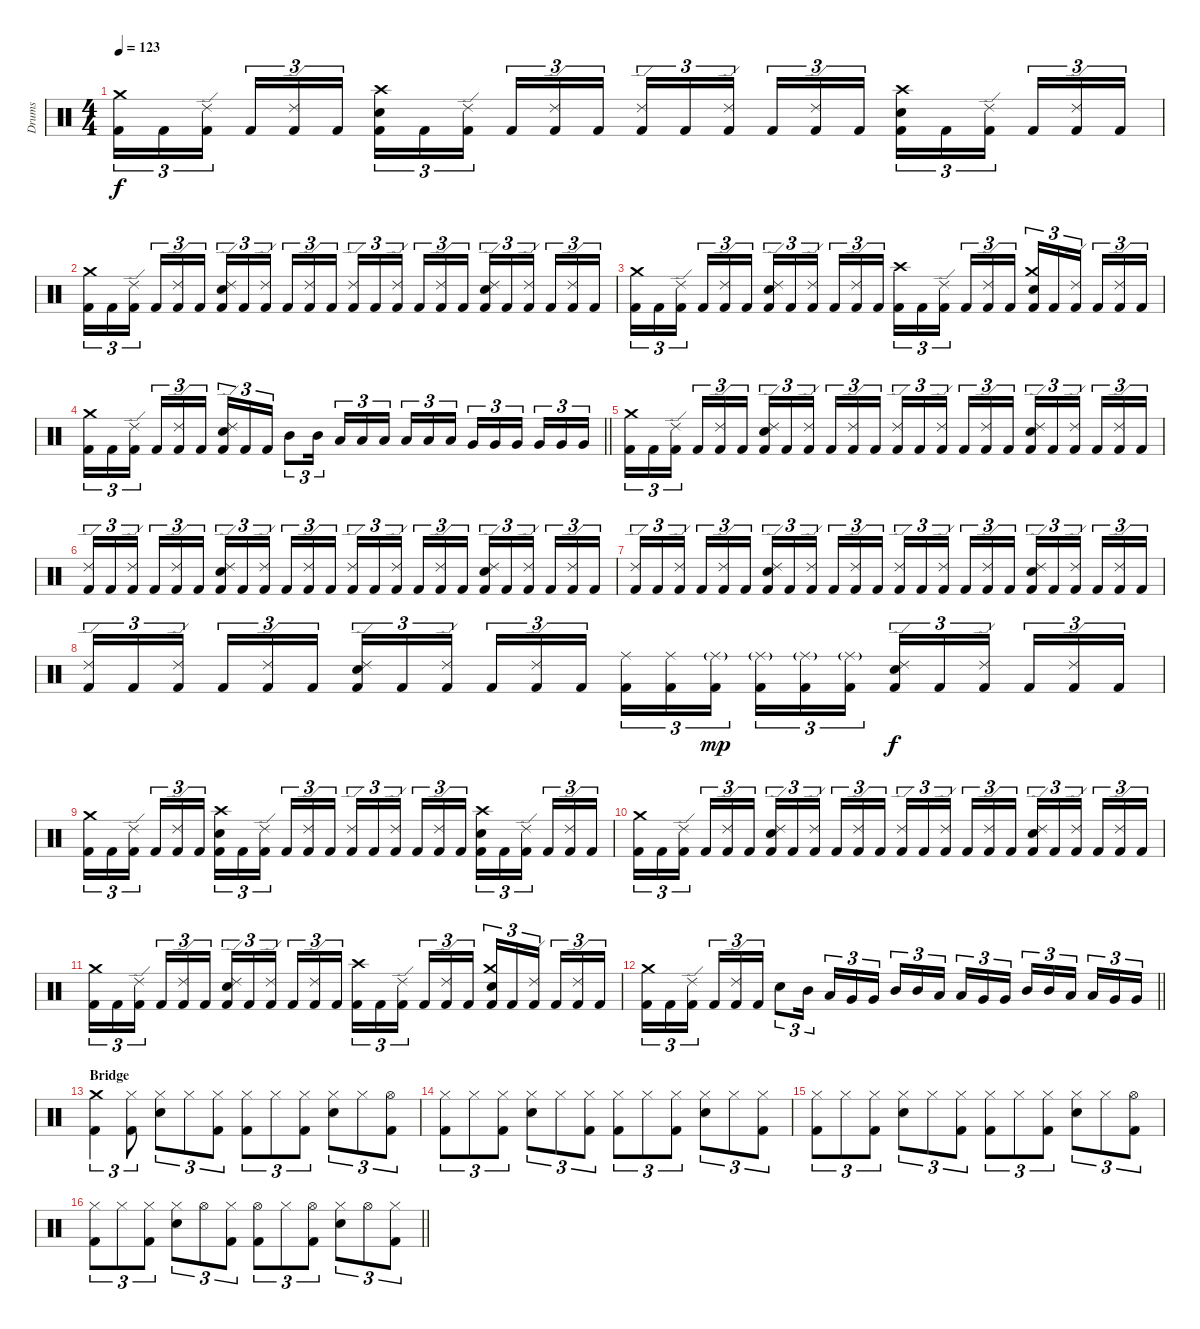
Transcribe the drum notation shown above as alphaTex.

\track ("Drums" "Drums") {instrument percussion}
\staff {score}
\articulation defaults
\ts (4 4)
\tempo 123
\clef neutral
\ks c
("Kick (hit) 2" "Crash medium (hit)").16{tu (3 2) dy f} "Kick (hit) 2".16{tu (3 2)} ("Kick (hit) 2" "Ride (edge) 2").16{tu (3 2) beam splitsecondary} "Kick (hit) 2".16{tu (3 2)} ("Kick (hit) 2" "Ride (edge) 2").16{tu (3 2)} "Kick (hit) 2".16{tu (3 2)} ("Kick (hit) 2" "Snare (hit) 2" "Crash high (hit)").16{tu (3 2)} "Kick (hit) 2".16{tu (3 2)} ("Kick (hit) 2" "Ride (edge) 2").16{tu (3 2) beam splitsecondary} "Kick (hit) 2".16{tu (3 2)} ("Kick (hit) 2" "Ride (edge) 2").16{tu (3 2)} "Kick (hit) 2".16{tu (3 2)} ("Kick (hit) 2" "Ride (edge) 2").16{tu (3 2)} "Kick (hit) 2".16{tu (3 2)} ("Kick (hit) 2" "Ride (edge) 2").16{tu (3 2) beam splitsecondary} "Kick (hit) 2".16{tu (3 2)} ("Kick (hit) 2" "Ride (edge) 2").16{tu (3 2)} "Kick (hit) 2".16{tu (3 2)} ("Kick (hit) 2" "Snare (hit) 2" "Crash high (hit)").16{tu (3 2)} "Kick (hit) 2".16{tu (3 2)} ("Kick (hit) 2" "Ride (edge) 2").16{tu (3 2) beam splitsecondary} "Kick (hit) 2".16{tu (3 2)} ("Kick (hit) 2" "Ride (edge) 2").16{tu (3 2)} "Kick (hit) 2".16{tu (3 2)} |
("Kick (hit) 2" "Crash medium (hit)").16{tu (3 2)} "Kick (hit) 2".16{tu (3 2)} ("Kick (hit) 2" "Ride (edge) 2").16{tu (3 2) beam splitsecondary} "Kick (hit) 2".16{tu (3 2)} ("Kick (hit) 2" "Ride (edge) 2").16{tu (3 2)} "Kick (hit) 2".16{tu (3 2)} ("Kick (hit) 2" "Snare (hit) 2" "Ride (edge) 2").16{tu (3 2)} "Kick (hit) 2".16{tu (3 2)} ("Kick (hit) 2" "Ride (edge) 2").16{tu (3 2) beam splitsecondary} "Kick (hit) 2".16{tu (3 2)} ("Kick (hit) 2" "Ride (edge) 2").16{tu (3 2)} "Kick (hit) 2".16{tu (3 2)} ("Kick (hit) 2" "Ride (edge) 2").16{tu (3 2)} "Kick (hit) 2".16{tu (3 2)} ("Kick (hit) 2" "Ride (edge) 2").16{tu (3 2) beam splitsecondary} "Kick (hit) 2".16{tu (3 2)} ("Kick (hit) 2" "Ride (edge) 2").16{tu (3 2)} "Kick (hit) 2".16{tu (3 2)} ("Kick (hit) 2" "Snare (hit) 2" "Ride (edge) 2").16{tu (3 2)} "Kick (hit) 2".16{tu (3 2)} ("Kick (hit) 2" "Ride (edge) 2").16{tu (3 2) beam splitsecondary} "Kick (hit) 2".16{tu (3 2)} ("Kick (hit) 2" "Ride (edge) 2").16{tu (3 2)} "Kick (hit) 2".16{tu (3 2)} |
("Kick (hit) 2" "Crash medium (hit)").16{tu (3 2)} "Kick (hit) 2".16{tu (3 2)} ("Kick (hit) 2" "Ride (edge) 2").16{tu (3 2) beam splitsecondary} "Kick (hit) 2".16{tu (3 2)} ("Kick (hit) 2" "Ride (edge) 2").16{tu (3 2)} "Kick (hit) 2".16{tu (3 2)} ("Kick (hit) 2" "Snare (hit) 2" "Ride (edge) 2").16{tu (3 2)} "Kick (hit) 2".16{tu (3 2)} ("Kick (hit) 2" "Ride (edge) 2").16{tu (3 2) beam splitsecondary} "Kick (hit) 2".16{tu (3 2)} ("Kick (hit) 2" "Ride (edge) 2").16{tu (3 2)} "Kick (hit) 2".16{tu (3 2)} ("Kick (hit) 2" "Crash high (hit)").16{tu (3 2)} "Kick (hit) 2".16{tu (3 2)} ("Kick (hit) 2" "Ride (edge) 2").16{tu (3 2) beam splitsecondary} "Kick (hit) 2".16{tu (3 2)} ("Kick (hit) 2" "Ride (edge) 2").16{tu (3 2)} "Kick (hit) 2".16{tu (3 2)} ("Kick (hit) 2" "Snare (hit) 2" "Crash medium (hit)").16{tu (3 2)} "Kick (hit) 2".16{tu (3 2)} ("Kick (hit) 2" "Ride (edge) 2").16{tu (3 2) beam splitsecondary} "Kick (hit) 2".16{tu (3 2)} ("Kick (hit) 2" "Ride (edge) 2").16{tu (3 2)} "Kick (hit) 2".16{tu (3 2)} |
\barLineRight lightlight
("Kick (hit) 2" "Crash medium (hit)").16{tu (3 2)} "Kick (hit) 2".16{tu (3 2)} ("Kick (hit) 2" "Ride (edge) 2").16{tu (3 2) beam splitsecondary} "Kick (hit) 2".16{tu (3 2)} ("Kick (hit) 2" "Ride (edge) 2").16{tu (3 2)} "Kick (hit) 2".16{tu (3 2)} ("Kick (hit) 2" "Snare (hit) 2" "Ride (edge) 2").16{tu (3 2)} "Kick (hit) 2".16{tu (3 2)} "Kick (hit) 2".16{tu (3 2)} "Mid Tom (hit)".8{tu (3 2)} "Mid Tom (hit)".16{tu (3 2)} "Low Tom (hit)".16{tu (3 2)} "Low Tom (hit)".16{tu (3 2)} "Low Tom (hit)".16{tu (3 2) beam splitsecondary} "Low Tom (hit)".16{tu (3 2)} "Low Tom (hit)".16{tu (3 2)} "Low Tom (hit)".16{tu (3 2)} "Very Low Tom (hit)".16{tu (3 2)} "Very Low Tom (hit)".16{tu (3 2)} "Very Low Tom (hit)".16{tu (3 2) beam splitsecondary} "Very Low Tom (hit)".16{tu (3 2)} "Very Low Tom (hit)".16{tu (3 2)} "Very Low Tom (hit)".16{tu (3 2)} |
\section ("" "")
("Kick (hit) 2" "Crash medium (hit)").16{tu (3 2)} "Kick (hit) 2".16{tu (3 2)} ("Kick (hit) 2" "Ride (edge) 2").16{tu (3 2) beam splitsecondary} "Kick (hit) 2".16{tu (3 2)} ("Kick (hit) 2" "Ride (edge) 2").16{tu (3 2)} "Kick (hit) 2".16{tu (3 2)} ("Kick (hit) 2" "Snare (hit) 2" "Ride (edge) 2").16{tu (3 2)} "Kick (hit) 2".16{tu (3 2)} ("Kick (hit) 2" "Ride (edge) 2").16{tu (3 2) beam splitsecondary} "Kick (hit) 2".16{tu (3 2)} ("Kick (hit) 2" "Ride (edge) 2").16{tu (3 2)} "Kick (hit) 2".16{tu (3 2)} ("Kick (hit) 2" "Ride (edge) 2").16{tu (3 2)} "Kick (hit) 2".16{tu (3 2)} ("Kick (hit) 2" "Ride (edge) 2").16{tu (3 2) beam splitsecondary} "Kick (hit) 2".16{tu (3 2)} ("Kick (hit) 2" "Ride (edge) 2").16{tu (3 2)} "Kick (hit) 2".16{tu (3 2)} ("Kick (hit) 2" "Snare (hit) 2" "Ride (edge) 2").16{tu (3 2)} "Kick (hit) 2".16{tu (3 2)} ("Kick (hit) 2" "Ride (edge) 2").16{tu (3 2) beam splitsecondary} "Kick (hit) 2".16{tu (3 2)} ("Kick (hit) 2" "Ride (edge) 2").16{tu (3 2)} "Kick (hit) 2".16{tu (3 2)} |
("Kick (hit) 2" "Ride (edge) 2").16{tu (3 2)} "Kick (hit) 2".16{tu (3 2)} ("Kick (hit) 2" "Ride (edge) 2").16{tu (3 2) beam splitsecondary} "Kick (hit) 2".16{tu (3 2)} ("Kick (hit) 2" "Ride (edge) 2").16{tu (3 2)} "Kick (hit) 2".16{tu (3 2)} ("Kick (hit) 2" "Snare (hit) 2" "Ride (edge) 2").16{tu (3 2)} "Kick (hit) 2".16{tu (3 2)} ("Kick (hit) 2" "Ride (edge) 2").16{tu (3 2) beam splitsecondary} "Kick (hit) 2".16{tu (3 2)} ("Kick (hit) 2" "Ride (edge) 2").16{tu (3 2)} "Kick (hit) 2".16{tu (3 2)} ("Kick (hit) 2" "Ride (edge) 2").16{tu (3 2)} "Kick (hit) 2".16{tu (3 2)} ("Kick (hit) 2" "Ride (edge) 2").16{tu (3 2) beam splitsecondary} "Kick (hit) 2".16{tu (3 2)} ("Kick (hit) 2" "Ride (edge) 2").16{tu (3 2)} "Kick (hit) 2".16{tu (3 2)} ("Kick (hit) 2" "Snare (hit) 2" "Ride (edge) 2").16{tu (3 2)} "Kick (hit) 2".16{tu (3 2)} ("Kick (hit) 2" "Ride (edge) 2").16{tu (3 2) beam splitsecondary} "Kick (hit) 2".16{tu (3 2)} ("Kick (hit) 2" "Ride (edge) 2").16{tu (3 2)} "Kick (hit) 2".16{tu (3 2)} |
("Kick (hit) 2" "Ride (edge) 2").16{tu (3 2)} "Kick (hit) 2".16{tu (3 2)} ("Kick (hit) 2" "Ride (edge) 2").16{tu (3 2) beam splitsecondary} "Kick (hit) 2".16{tu (3 2)} ("Kick (hit) 2" "Ride (edge) 2").16{tu (3 2)} "Kick (hit) 2".16{tu (3 2)} ("Kick (hit) 2" "Snare (hit) 2" "Ride (edge) 2").16{tu (3 2)} "Kick (hit) 2".16{tu (3 2)} ("Kick (hit) 2" "Ride (edge) 2").16{tu (3 2) beam splitsecondary} "Kick (hit) 2".16{tu (3 2)} ("Kick (hit) 2" "Ride (edge) 2").16{tu (3 2)} "Kick (hit) 2".16{tu (3 2)} ("Kick (hit) 2" "Ride (edge) 2").16{tu (3 2)} "Kick (hit) 2".16{tu (3 2)} ("Kick (hit) 2" "Ride (edge) 2").16{tu (3 2) beam splitsecondary} "Kick (hit) 2".16{tu (3 2)} ("Kick (hit) 2" "Ride (edge) 2").16{tu (3 2)} "Kick (hit) 2".16{tu (3 2)} ("Kick (hit) 2" "Snare (hit) 2" "Ride (edge) 2").16{tu (3 2)} "Kick (hit) 2".16{tu (3 2)} ("Kick (hit) 2" "Ride (edge) 2").16{tu (3 2) beam splitsecondary} "Kick (hit) 2".16{tu (3 2)} ("Kick (hit) 2" "Ride (edge) 2").16{tu (3 2)} "Kick (hit) 2".16{tu (3 2)} |
("Kick (hit) 2" "Ride (edge) 2").16{tu (3 2)} "Kick (hit) 2".16{tu (3 2)} ("Kick (hit) 2" "Ride (edge) 2").16{tu (3 2) beam splitsecondary} "Kick (hit) 2".16{tu (3 2)} ("Kick (hit) 2" "Ride (edge) 2").16{tu (3 2)} "Kick (hit) 2".16{tu (3 2)} ("Kick (hit) 2" "Snare (hit) 2" "Ride (edge) 2").16{tu (3 2)} "Kick (hit) 2".16{tu (3 2)} ("Kick (hit) 2" "Ride (edge) 2").16{tu (3 2) beam splitsecondary} "Kick (hit) 2".16{tu (3 2)} ("Kick (hit) 2" "Ride (edge) 2").16{tu (3 2)} "Kick (hit) 2".16{tu (3 2)} ("Kick (hit) 2" "Ride (middle)").16{tu (3 2)} ("Kick (hit) 2" "Ride (middle)").16{tu (3 2)} ("Kick (hit) 2" "Ride (middle)"{g}).16{tu (3 2) dy mp beam splitsecondary} ("Kick (hit) 2" "Ride (middle)"{g}).16{tu (3 2)} ("Kick (hit) 2" "Ride (middle)"{g}).16{tu (3 2)} ("Kick (hit) 2" "Ride (middle)"{g}).16{tu (3 2)} ("Kick (hit) 2" "Snare (hit) 2" "Ride (edge) 2").16{tu (3 2) dy f} "Kick (hit) 2".16{tu (3 2)} ("Kick (hit) 2" "Ride (edge) 2").16{tu (3 2) beam splitsecondary} "Kick (hit) 2".16{tu (3 2)} ("Kick (hit) 2" "Ride (edge) 2").16{tu (3 2)} "Kick (hit) 2".16{tu (3 2)} |
("Kick (hit) 2" "Crash medium (hit)").16{tu (3 2)} "Kick (hit) 2".16{tu (3 2)} ("Kick (hit) 2" "Ride (edge) 2").16{tu (3 2) beam splitsecondary} "Kick (hit) 2".16{tu (3 2)} ("Kick (hit) 2" "Ride (edge) 2").16{tu (3 2)} "Kick (hit) 2".16{tu (3 2)} ("Kick (hit) 2" "Snare (hit) 2" "Crash high (hit)").16{tu (3 2)} "Kick (hit) 2".16{tu (3 2)} ("Kick (hit) 2" "Ride (edge) 2").16{tu (3 2) beam splitsecondary} "Kick (hit) 2".16{tu (3 2)} ("Kick (hit) 2" "Ride (edge) 2").16{tu (3 2)} "Kick (hit) 2".16{tu (3 2)} ("Kick (hit) 2" "Ride (edge) 2").16{tu (3 2)} "Kick (hit) 2".16{tu (3 2)} ("Kick (hit) 2" "Ride (edge) 2").16{tu (3 2) beam splitsecondary} "Kick (hit) 2".16{tu (3 2)} ("Kick (hit) 2" "Ride (edge) 2").16{tu (3 2)} "Kick (hit) 2".16{tu (3 2)} ("Kick (hit) 2" "Snare (hit) 2" "Crash high (hit)").16{tu (3 2)} "Kick (hit) 2".16{tu (3 2)} ("Kick (hit) 2" "Ride (edge) 2").16{tu (3 2) beam splitsecondary} "Kick (hit) 2".16{tu (3 2)} ("Kick (hit) 2" "Ride (edge) 2").16{tu (3 2)} "Kick (hit) 2".16{tu (3 2)} |
("Kick (hit) 2" "Crash medium (hit)").16{tu (3 2)} "Kick (hit) 2".16{tu (3 2)} ("Kick (hit) 2" "Ride (edge) 2").16{tu (3 2) beam splitsecondary} "Kick (hit) 2".16{tu (3 2)} ("Kick (hit) 2" "Ride (edge) 2").16{tu (3 2)} "Kick (hit) 2".16{tu (3 2)} ("Kick (hit) 2" "Snare (hit) 2" "Ride (edge) 2").16{tu (3 2)} "Kick (hit) 2".16{tu (3 2)} ("Kick (hit) 2" "Ride (edge) 2").16{tu (3 2) beam splitsecondary} "Kick (hit) 2".16{tu (3 2)} ("Kick (hit) 2" "Ride (edge) 2").16{tu (3 2)} "Kick (hit) 2".16{tu (3 2)} ("Kick (hit) 2" "Ride (edge) 2").16{tu (3 2)} "Kick (hit) 2".16{tu (3 2)} ("Kick (hit) 2" "Ride (edge) 2").16{tu (3 2) beam splitsecondary} "Kick (hit) 2".16{tu (3 2)} ("Kick (hit) 2" "Ride (edge) 2").16{tu (3 2)} "Kick (hit) 2".16{tu (3 2)} ("Kick (hit) 2" "Snare (hit) 2" "Ride (edge) 2").16{tu (3 2)} "Kick (hit) 2".16{tu (3 2)} ("Kick (hit) 2" "Ride (edge) 2").16{tu (3 2) beam splitsecondary} "Kick (hit) 2".16{tu (3 2)} ("Kick (hit) 2" "Ride (edge) 2").16{tu (3 2)} "Kick (hit) 2".16{tu (3 2)} |
("Kick (hit) 2" "Crash medium (hit)").16{tu (3 2)} "Kick (hit) 2".16{tu (3 2)} ("Kick (hit) 2" "Ride (edge) 2").16{tu (3 2) beam splitsecondary} "Kick (hit) 2".16{tu (3 2)} ("Kick (hit) 2" "Ride (edge) 2").16{tu (3 2)} "Kick (hit) 2".16{tu (3 2)} ("Kick (hit) 2" "Snare (hit) 2" "Ride (edge) 2").16{tu (3 2)} "Kick (hit) 2".16{tu (3 2)} ("Kick (hit) 2" "Ride (edge) 2").16{tu (3 2) beam splitsecondary} "Kick (hit) 2".16{tu (3 2)} ("Kick (hit) 2" "Ride (edge) 2").16{tu (3 2)} "Kick (hit) 2".16{tu (3 2)} ("Kick (hit) 2" "Crash high (hit)").16{tu (3 2)} "Kick (hit) 2".16{tu (3 2)} ("Kick (hit) 2" "Ride (edge) 2").16{tu (3 2) beam splitsecondary} "Kick (hit) 2".16{tu (3 2)} ("Kick (hit) 2" "Ride (edge) 2").16{tu (3 2)} "Kick (hit) 2".16{tu (3 2)} ("Kick (hit) 2" "Snare (hit) 2" "Crash medium (hit)").16{tu (3 2)} "Kick (hit) 2".16{tu (3 2)} ("Kick (hit) 2" "Ride (edge) 2").16{tu (3 2) beam splitsecondary} "Kick (hit) 2".16{tu (3 2)} ("Kick (hit) 2" "Ride (edge) 2").16{tu (3 2)} "Kick (hit) 2".16{tu (3 2)} |
\barLineRight lightlight
("Kick (hit) 2" "Crash medium (hit)").16{tu (3 2)} "Kick (hit) 2".16{tu (3 2)} ("Kick (hit) 2" "Ride (edge) 2").16{tu (3 2) beam splitsecondary} "Kick (hit) 2".16{tu (3 2)} ("Kick (hit) 2" "Ride (edge) 2").16{tu (3 2)} "Kick (hit) 2".16{tu (3 2)} "Snare (hit) 2".8{tu (3 2)} "Mid Tom (hit)".16{tu (3 2) beam splitsecondary} "Low Tom (hit)".16{tu (3 2)} "Very Low Tom (hit)".16{tu (3 2)} "Very Low Tom (hit)".16{tu (3 2)} "Mid Tom (hit)".16{tu (3 2)} "Mid Tom (hit)".16{tu (3 2)} "Low Tom (hit)".16{tu (3 2) beam splitsecondary} "Low Tom (hit)".16{tu (3 2)} "Very Low Tom (hit)".16{tu (3 2)} "Very Low Tom (hit)".16{tu (3 2)} "Mid Tom (hit)".16{tu (3 2)} "Mid Tom (hit)".16{tu (3 2)} "Low Tom (hit)".16{tu (3 2) beam splitsecondary} "Low Tom (hit)".16{tu (3 2)} "Very Low Tom (hit)".16{tu (3 2)} "Very Low Tom (hit)".16{tu (3 2)} |
\section ("" "Bridge")
("Kick (hit) 2" "Crash medium (hit)").4{tu (3 2)} ("Kick (hit) 2" "Hi-Hat (closed)").8{tu (3 2)} ("Snare (hit) 2" "Hi-Hat (closed)").8{tu (3 2)} "Hi-Hat (closed)".8{tu (3 2)} ("Kick (hit) 2" "Hi-Hat (closed)").8{tu (3 2)} ("Kick (hit) 2" "Hi-Hat (closed)").8{tu (3 2)} "Hi-Hat (closed)".8{tu (3 2)} ("Kick (hit) 2" "Hi-Hat (closed)").8{tu (3 2)} ("Snare (hit) 2" "Hi-Hat (closed)").8{tu (3 2)} "Hi-Hat (closed)".8{tu (3 2)} ("Kick (hit) 2" "Hi-Hat (open)").8{tu (3 2)} |
("Kick (hit) 2" "Hi-Hat (closed)").8{tu (3 2)} "Hi-Hat (closed)".8{tu (3 2)} ("Kick (hit) 2" "Hi-Hat (closed)").8{tu (3 2)} ("Snare (hit) 2" "Hi-Hat (closed)").8{tu (3 2)} "Hi-Hat (closed)".8{tu (3 2)} ("Kick (hit) 2" "Hi-Hat (closed)").8{tu (3 2)} ("Kick (hit) 2" "Hi-Hat (closed)").8{tu (3 2)} "Hi-Hat (closed)".8{tu (3 2)} ("Kick (hit) 2" "Hi-Hat (closed)").8{tu (3 2)} ("Snare (hit) 2" "Hi-Hat (closed)").8{tu (3 2)} "Hi-Hat (closed)".8{tu (3 2)} ("Kick (hit) 2" "Hi-Hat (closed)").8{tu (3 2)} |
("Kick (hit) 2" "Hi-Hat (closed)").8{tu (3 2)} "Hi-Hat (closed)".8{tu (3 2)} ("Kick (hit) 2" "Hi-Hat (closed)").8{tu (3 2)} ("Snare (hit) 2" "Hi-Hat (closed)").8{tu (3 2)} "Hi-Hat (closed)".8{tu (3 2)} ("Kick (hit) 2" "Hi-Hat (closed)").8{tu (3 2)} ("Kick (hit) 2" "Hi-Hat (closed)").8{tu (3 2)} "Hi-Hat (closed)".8{tu (3 2)} ("Kick (hit) 2" "Hi-Hat (closed)").8{tu (3 2)} ("Snare (hit) 2" "Hi-Hat (closed)").8{tu (3 2)} "Hi-Hat (closed)".8{tu (3 2)} ("Kick (hit) 2" "Hi-Hat (open)").8{tu (3 2)} |
\barLineRight lightlight
("Kick (hit) 2" "Hi-Hat (closed)").8{tu (3 2)} "Hi-Hat (closed)".8{tu (3 2)} ("Kick (hit) 2" "Hi-Hat (closed)").8{tu (3 2)} ("Snare (hit) 2" "Hi-Hat (closed)").8{tu (3 2)} "Hi-Hat (open)".8{tu (3 2)} ("Kick (hit) 2" "Hi-Hat (closed)").8{tu (3 2)} ("Kick (hit) 2" "Hi-Hat (open)").8{tu (3 2)} "Hi-Hat (closed)".8{tu (3 2)} ("Kick (hit) 2" "Hi-Hat (open)").8{tu (3 2)} ("Snare (hit) 2" "Hi-Hat (closed)").8{tu (3 2)} "Hi-Hat (open)".8{tu (3 2)} ("Kick (hit) 2" "Hi-Hat (closed)").8{tu (3 2)}
